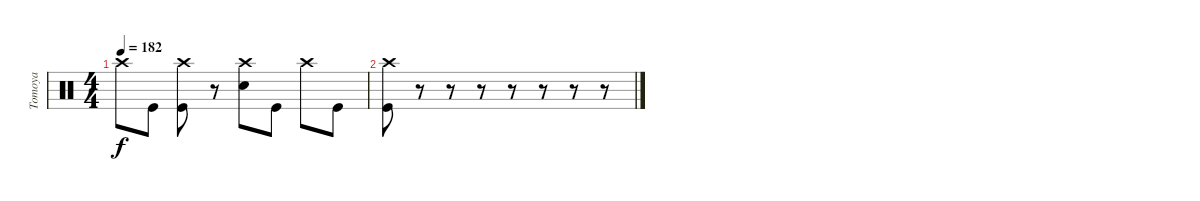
\track ("Tomoya" "Tomoya") {instrument percussion}
\staff {score}
\articulation defaults
\ts (4 4)
\tempo 182
\clef neutral
\ks c "Crash high (hit)".8{dy f} "Kick (hit)".8
("Crash high (hit)" "Kick (hit)").8 r.8 ("Crash high (hit)" "Snare (hit) 2").8 "Kick (hit)".8 "Crash high (hit)".8 "Kick (hit)".8 |
("Crash high (hit)" "Kick (hit)").8 r.8 r.8 r.8 r.8 r.8 r.8 r.8
